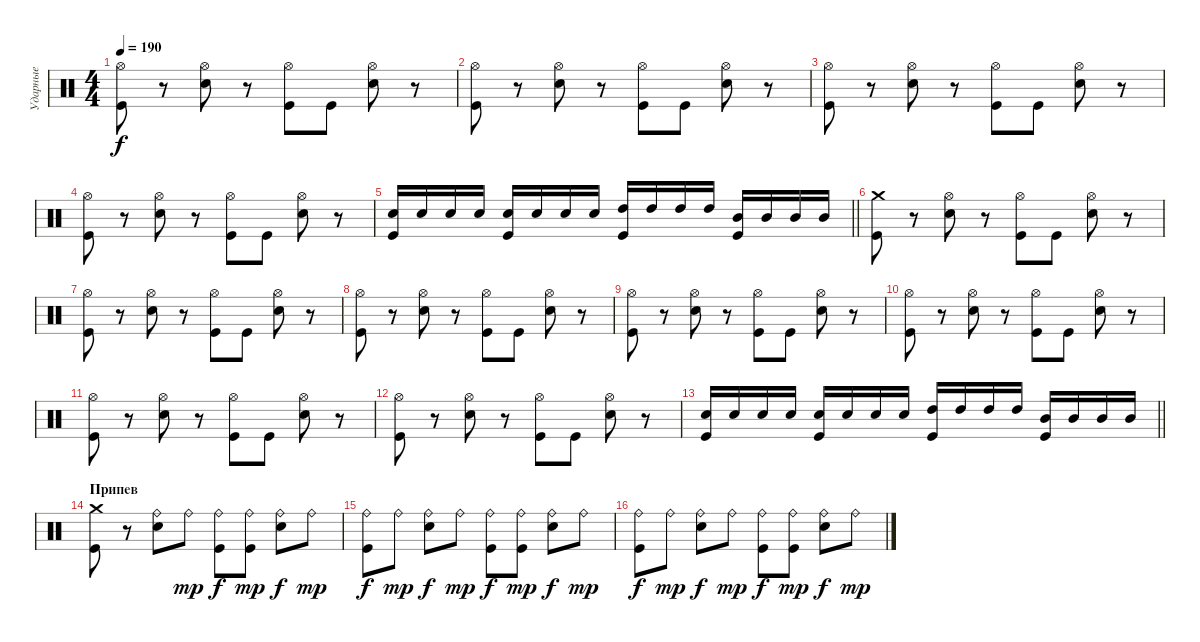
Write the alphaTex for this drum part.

\track ("Ударные" "Ударные") {instrument percussion}
\staff {score}
\articulation defaults
\ts (4 4)
\tempo 190
\clef neutral
\ks c
("Hi-Hat (open)" "Kick (hit)").8{dy f} r.8 ("Hi-Hat (open)" "Electric Snare (hit)").8 r.8 ("Hi-Hat (open)" "Kick (hit)").8 "Kick (hit)".8 ("Hi-Hat (open)" "Electric Snare (hit)").8 r.8 |
("Hi-Hat (open)" "Kick (hit)").8 r.8 ("Hi-Hat (open)" "Electric Snare (hit)").8 r.8 ("Hi-Hat (open)" "Kick (hit)").8 "Kick (hit)".8 ("Hi-Hat (open)" "Electric Snare (hit)").8 r.8 |
("Hi-Hat (open)" "Kick (hit)").8 r.8 ("Hi-Hat (open)" "Electric Snare (hit)").8 r.8 ("Hi-Hat (open)" "Kick (hit)").8 "Kick (hit)".8 ("Hi-Hat (open)" "Electric Snare (hit)").8 r.8 |
("Hi-Hat (open)" "Kick (hit)").8 r.8 ("Hi-Hat (open)" "Electric Snare (hit)").8 r.8 ("Hi-Hat (open)" "Kick (hit)").8 "Kick (hit)".8 ("Hi-Hat (open)" "Electric Snare (hit)").8 r.8 |
\barLineRight lightlight
("Electric Snare (hit)" "Kick (hit)").16 "Electric Snare (hit)".16 "Electric Snare (hit)".16 "Electric Snare (hit)".16 ("Electric Snare (hit)" "Kick (hit)").16 "Electric Snare (hit)".16 "Electric Snare (hit)".16 "Electric Snare (hit)".16 ("High Tom (hit)" "Kick (hit)").16 "High Tom (hit)".16 "High Tom (hit)".16 "High Tom (hit)".16 ("Mid Tom (hit)" "Kick (hit)").16 "Mid Tom (hit)".16 "Mid Tom (hit)".16 "Mid Tom (hit)".16 |
\section ("" " ")
("Crash medium (hit)" "Kick (hit)").8 r.8 ("Hi-Hat (open)" "Electric Snare (hit)").8 r.8 ("Hi-Hat (open)" "Kick (hit)").8 "Kick (hit)".8 ("Hi-Hat (open)" "Electric Snare (hit)").8 r.8 |
("Hi-Hat (open)" "Kick (hit)").8 r.8 ("Hi-Hat (open)" "Electric Snare (hit)").8 r.8 ("Hi-Hat (open)" "Kick (hit)").8 "Kick (hit)".8 ("Hi-Hat (open)" "Electric Snare (hit)").8 r.8 |
("Hi-Hat (open)" "Kick (hit)").8 r.8 ("Hi-Hat (open)" "Electric Snare (hit)").8 r.8 ("Hi-Hat (open)" "Kick (hit)").8 "Kick (hit)".8 ("Hi-Hat (open)" "Electric Snare (hit)").8 r.8 |
("Hi-Hat (open)" "Kick (hit)").8 r.8 ("Hi-Hat (open)" "Electric Snare (hit)").8 r.8 ("Hi-Hat (open)" "Kick (hit)").8 "Kick (hit)".8 ("Hi-Hat (open)" "Electric Snare (hit)").8 r.8 |
("Hi-Hat (open)" "Kick (hit)").8 r.8 ("Hi-Hat (open)" "Electric Snare (hit)").8 r.8 ("Hi-Hat (open)" "Kick (hit)").8 "Kick (hit)".8 ("Hi-Hat (open)" "Electric Snare (hit)").8 r.8 |
("Hi-Hat (open)" "Kick (hit)").8 r.8 ("Hi-Hat (open)" "Electric Snare (hit)").8 r.8 ("Hi-Hat (open)" "Kick (hit)").8 "Kick (hit)".8 ("Hi-Hat (open)" "Electric Snare (hit)").8 r.8 |
("Hi-Hat (open)" "Kick (hit)").8 r.8 ("Hi-Hat (open)" "Electric Snare (hit)").8 r.8 ("Hi-Hat (open)" "Kick (hit)").8 "Kick (hit)".8 ("Hi-Hat (open)" "Electric Snare (hit)").8 r.8 |
\barLineRight lightlight
("Electric Snare (hit)" "Kick (hit)").16 "Electric Snare (hit)".16 "Electric Snare (hit)".16 "Electric Snare (hit)".16 ("Electric Snare (hit)" "Kick (hit)").16 "Electric Snare (hit)".16 "Electric Snare (hit)".16 "Electric Snare (hit)".16 ("High Tom (hit)" "Kick (hit)").16 "High Tom (hit)".16 "High Tom (hit)".16 "High Tom (hit)".16 ("Mid Tom (hit)" "Kick (hit)").16 "Mid Tom (hit)".16 "Mid Tom (hit)".16 "Mid Tom (hit)".16 |
\section ("" "Припев")
("Crash medium (hit)" "Kick (hit)").8 r.8 ("Ride (bell)" "Electric Snare (hit)").8 "Ride (bell)".8{dy mp} ("Ride (bell)" "Kick (hit)").8{dy f} ("Ride (bell)" "Kick (hit)").8{dy mp} ("Ride (bell)" "Electric Snare (hit)").8{dy f} "Ride (bell)".8{dy mp} |
("Ride (bell)" "Kick (hit)").8{dy f} "Ride (bell)".8{dy mp} ("Ride (bell)" "Electric Snare (hit)").8{dy f} "Ride (bell)".8{dy mp} ("Ride (bell)" "Kick (hit)").8{dy f} ("Ride (bell)" "Kick (hit)").8{dy mp} ("Ride (bell)" "Electric Snare (hit)").8{dy f} "Ride (bell)".8{dy mp} |
("Ride (bell)" "Kick (hit)").8{dy f} "Ride (bell)".8{dy mp} ("Ride (bell)" "Electric Snare (hit)").8{dy f} "Ride (bell)".8{dy mp} ("Ride (bell)" "Kick (hit)").8{dy f} ("Ride (bell)" "Kick (hit)").8{dy mp} ("Ride (bell)" "Electric Snare (hit)").8{dy f} "Ride (bell)".8{dy mp}
